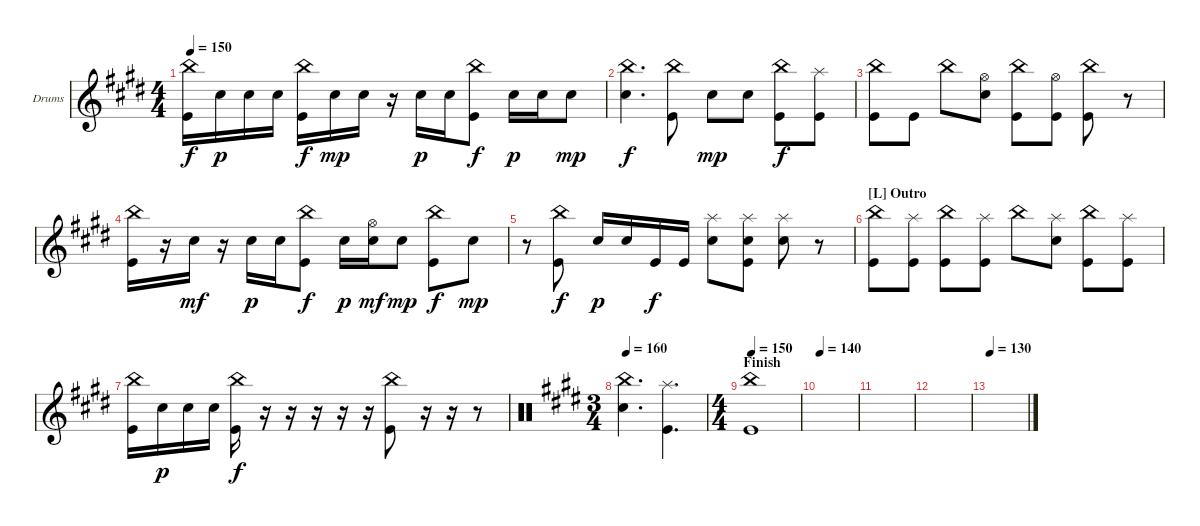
\bracketExtendMode groupsimilarinstruments
\firstSystemTrackNameOrientation horizontal
\otherSystemsTrackNameOrientation horizontal
\track ("Drums" "Drums") {instrument percussion}
\staff {score}
\articulation defaults
\ts (4 4)
\tempo 150
\clef g2
\ks e
("Kick (hit)" "China (hit)").16{dy f} "Snare (hit) 2".16{dy p} "Snare (hit) 2".16 "Snare (hit) 2".16 ("Kick (hit)" "China (hit)").16{dy f} "Snare (hit) 2".16{dy mp} "Snare (hit) 2".16 r.16 "Snare (hit) 2".16{dy p} "Snare (hit) 2".16 ("Kick (hit)" "China (hit)").8{dy f} "Snare (hit) 2".16{dy p} "Snare (hit) 2".16 "Snare (hit) 2".8{dy mp} |
("China (hit)" "Snare (hit) 2").4{d dy f} ("Kick (hit)" "China (hit)").8 "Snare (hit) 2".8{dy mp} "Snare (hit) 2".8 ("Kick (hit)" "China (hit)").8{dy f} ("Kick (hit)" "Splash (hit)").8 |
("Kick (hit)" "China (hit)").8 "Kick (hit)".8 "China (hit)".8 ("Snare (hit) 2" "Hi-Hat (open)").8 ("Kick (hit)" "China (hit)").8 ("Kick (hit)" "Hi-Hat (open)").8 ("Kick (hit)" "China (hit)").8 r.8 |
("Kick (hit)" "China (hit)").16 r.16 "Snare (hit) 2".16{dy mf} r.16 "Snare (hit) 2".16{dy p} "Snare (hit) 2".16 ("Kick (hit)" "China (hit)").8{dy f} "Snare (hit) 2".16{dy p} ("Snare (hit) 2" "Hi-Hat (open)").16{dy mf} "Snare (hit) 2".8{dy mp} ("Kick (hit)" "China (hit)").8{dy f} "Snare (hit) 2".8{dy mp} |
r.8 ("Kick (hit)" "China (hit)").8{dy f} "Snare (hit) 2".16{dy p} "Snare (hit) 2".16 "Kick (hit)".16{dy f} "Kick (hit)".16 ("Snare (hit) 2" "Splash (hit)").8 ("Snare (hit) 2" "Kick (hit)" "Splash (hit)").8 ("Snare (hit) 2" "Splash (hit)").8 r.8 |
\section ("L" "Outro")
\scale
0.322034 ("Kick (hit)" "China (hit)").8 ("Kick (hit)" "Splash (hit)").8 ("Kick (hit)" "China (hit)").8 ("Kick (hit)" "Splash (hit)").8 "China (hit)".8 ("Snare (hit) 2" "Splash (hit)").8 ("Kick (hit)" "China (hit)").8 ("Kick (hit)" "Splash (hit)").8 |
\scale
0.333333 ("Kick (hit)" "China (hit)").16 "Snare (hit) 2".16{dy p} "Snare (hit) 2".16 "Snare (hit) 2".16 ("Kick (hit)" "China (hit)").16{dy f} r.16 r.16 r.16 r.16 r.16 ("Kick (hit)" "China (hit)").8 r.16 r.16 r.8 |
\ts (3 4)
\tempo 160
\clef neutral
\scale
0.333333 ("Snare (hit) 2" "China (hit)").4{d} ("Kick (hit)" "Splash (hit)").4{d} |
\ts (4 4)
\section ("" "Finish")
\tempo 150
\scale
0.333333 ("Kick (hit)" "China (hit)").1 |
\tempo 140
\scale
0.333333 |
\scale
0.333333 |
\scale
0.333333 |
\tempo 130
\scale
0.333333 |
\scale
0.333333 |
\scale
0.333333 |
\scale
0.333333
